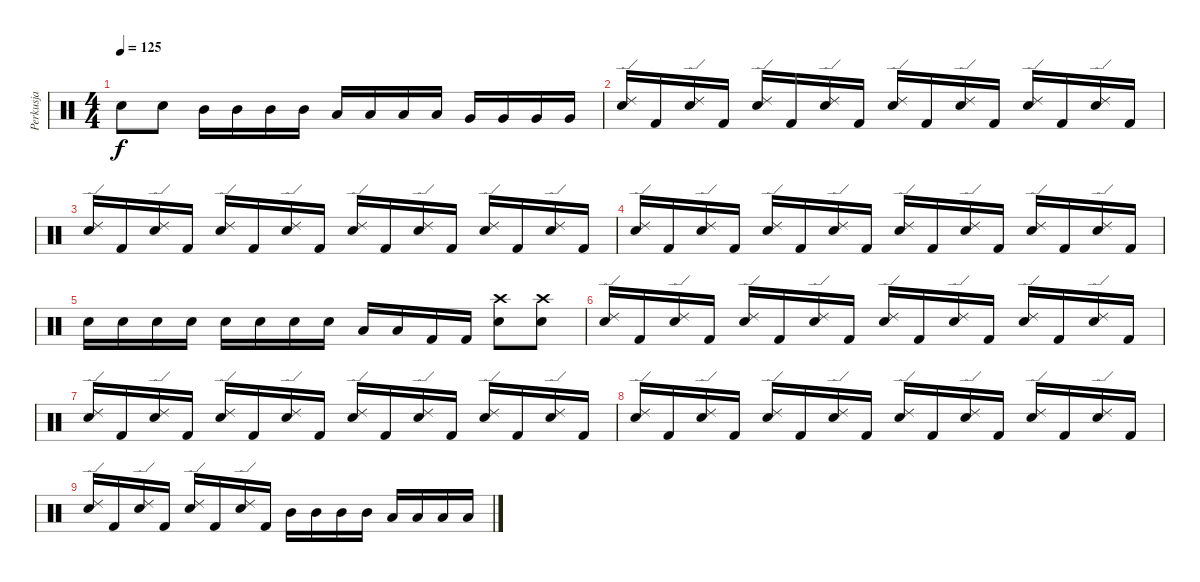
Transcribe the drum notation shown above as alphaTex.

\track ("Perkusja" "Perkusja") {instrument percussion}
\staff {score}
\articulation defaults
\ts (4 4)
\tempo 125
\clef neutral
\ks c "Snare (hit) 2".8{dy f} "Snare (hit) 2".8 "Mid Tom (hit)".16 "Mid Tom (hit)".16 "Mid Tom (hit)".16 "Mid Tom (hit)".16 "Low Tom (hit)".16 "Low Tom (hit)".16 "Low Tom (hit)".16 "Low Tom (hit)".16 "Very Low Tom (hit)".16 "Very Low Tom (hit)".16 "Very Low Tom (hit)".16 "Very Low Tom (hit)".16
|
("Ride (edge) 2" "Snare (hit) 2").16 "Kick (hit) 2".16 ("Ride (edge) 2" "Snare (hit) 2").16 "Kick (hit) 2".16 ("Ride (edge) 2" "Snare (hit) 2").16 "Kick (hit) 2".16 ("Ride (edge) 2" "Snare (hit) 2").16 "Kick (hit) 2".16 ("Ride (edge) 2" "Snare (hit) 2").16 "Kick (hit) 2".16 ("Ride (edge) 2" "Snare (hit) 2").16 "Kick (hit) 2".16 ("Ride (edge) 2" "Snare (hit) 2").16 "Kick (hit) 2".16 ("Ride (edge) 2" "Snare (hit) 2").16 "Kick (hit) 2".16 |
("Ride (edge) 2" "Snare (hit) 2").16 "Kick (hit) 2".16 ("Ride (edge) 2" "Snare (hit) 2").16 "Kick (hit) 2".16 ("Ride (edge) 2" "Snare (hit) 2").16 "Kick (hit) 2".16 ("Ride (edge) 2" "Snare (hit) 2").16 "Kick (hit) 2".16 ("Ride (edge) 2" "Snare (hit) 2").16 "Kick (hit) 2".16 ("Ride (edge) 2" "Snare (hit) 2").16 "Kick (hit) 2".16 ("Ride (edge) 2" "Snare (hit) 2").16 "Kick (hit) 2".16 ("Ride (edge) 2" "Snare (hit) 2").16 "Kick (hit) 2".16 |
("Ride (edge) 2" "Snare (hit) 2").16 "Kick (hit) 2".16 ("Ride (edge) 2" "Snare (hit) 2").16 "Kick (hit) 2".16 ("Ride (edge) 2" "Snare (hit) 2").16 "Kick (hit) 2".16 ("Ride (edge) 2" "Snare (hit) 2").16 "Kick (hit) 2".16 ("Ride (edge) 2" "Snare (hit) 2").16 "Kick (hit) 2".16 ("Ride (edge) 2" "Snare (hit) 2").16 "Kick (hit) 2".16 ("Ride (edge) 2" "Snare (hit) 2").16 "Kick (hit) 2".16 ("Ride (edge) 2" "Snare (hit) 2").16 "Kick (hit) 2".16 |
"Snare (hit) 2".16 "Snare (hit) 2".16 "Snare (hit) 2".16 "Snare (hit) 2".16 "Snare (hit) 2".16 "Snare (hit) 2".16 "Snare (hit) 2".16 "Snare (hit) 2".16 "Low Tom (hit)".16 "Low Tom (hit)".16 "Kick (hit) 2".16 "Kick (hit) 2".16 ("Crash high (hit)" "Snare (hit) 2").8 ("Crash high (hit)" "Snare (hit) 2").8 |
("Ride (edge) 2" "Snare (hit) 2").16 "Kick (hit) 2".16 ("Ride (edge) 2" "Snare (hit) 2").16 "Kick (hit) 2".16 ("Ride (edge) 2" "Snare (hit) 2").16 "Kick (hit) 2".16 ("Ride (edge) 2" "Snare (hit) 2").16 "Kick (hit) 2".16 ("Ride (edge) 2" "Snare (hit) 2").16 "Kick (hit) 2".16 ("Ride (edge) 2" "Snare (hit) 2").16 "Kick (hit) 2".16 ("Ride (edge) 2" "Snare (hit) 2").16 "Kick (hit) 2".16 ("Ride (edge) 2" "Snare (hit) 2").16 "Kick (hit) 2".16 |
("Ride (edge) 2" "Snare (hit) 2").16 "Kick (hit) 2".16 ("Ride (edge) 2" "Snare (hit) 2").16 "Kick (hit) 2".16 ("Ride (edge) 2" "Snare (hit) 2").16 "Kick (hit) 2".16 ("Ride (edge) 2" "Snare (hit) 2").16 "Kick (hit) 2".16 ("Ride (edge) 2" "Snare (hit) 2").16 "Kick (hit) 2".16 ("Ride (edge) 2" "Snare (hit) 2").16 "Kick (hit) 2".16 ("Ride (edge) 2" "Snare (hit) 2").16 "Kick (hit) 2".16 ("Ride (edge) 2" "Snare (hit) 2").16 "Kick (hit) 2".16 |
("Ride (edge) 2" "Snare (hit) 2").16 "Kick (hit) 2".16 ("Ride (edge) 2" "Snare (hit) 2").16 "Kick (hit) 2".16 ("Ride (edge) 2" "Snare (hit) 2").16 "Kick (hit) 2".16 ("Ride (edge) 2" "Snare (hit) 2").16 "Kick (hit) 2".16 ("Ride (edge) 2" "Snare (hit) 2").16 "Kick (hit) 2".16 ("Ride (edge) 2" "Snare (hit) 2").16 "Kick (hit) 2".16 ("Ride (edge) 2" "Snare (hit) 2").16 "Kick (hit) 2".16 ("Ride (edge) 2" "Snare (hit) 2").16 "Kick (hit) 2".16 |
("Ride (edge) 2" "Snare (hit) 2").16 "Kick (hit) 2".16 ("Ride (edge) 2" "Snare (hit) 2").16 "Kick (hit) 2".16 ("Ride (edge) 2" "Snare (hit) 2").16 "Kick (hit) 2".16 ("Ride (edge) 2" "Snare (hit) 2").16 "Kick (hit) 2".16 "Mid Tom (hit)".16 "Mid Tom (hit)".16 "Mid Tom (hit)".16 "Mid Tom (hit)".16 "Low Tom (hit)".16 "Low Tom (hit)".16 "Low Tom (hit)".16 "Low Tom (hit)".16
